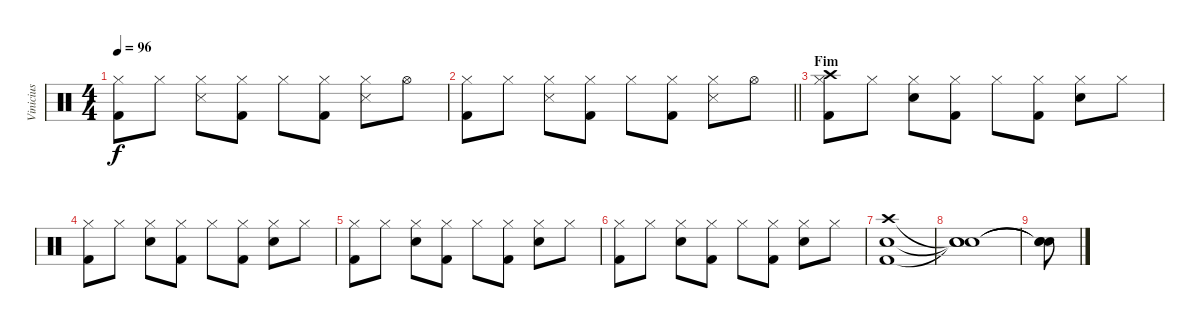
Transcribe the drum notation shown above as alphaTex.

\track ("Vinicius" "Vinicius") {instrument percussion}
\staff {score}
\articulation defaults
\ts (4 4)
\tempo 96
\clef neutral
\ks c
("Kick (hit) 2" "Hi-Hat (closed)").8{dy f} "Hi-Hat (closed)".8 ("Snare (side stick) 3" "Hi-Hat (closed)").8 ("Kick (hit) 2" "Hi-Hat (closed)").8 "Hi-Hat (closed)".8 ("Kick (hit) 2" "Hi-Hat (closed)").8 ("Snare (side stick) 3" "Hi-Hat (closed)").8 "Hi-Hat (open)".8 |
\barLineRight lightlight
("Kick (hit) 2" "Hi-Hat (closed)").8 "Hi-Hat (closed)".8 ("Snare (side stick) 3" "Hi-Hat (closed)").8 ("Kick (hit) 2" "Hi-Hat (closed)").8 "Hi-Hat (closed)".8 ("Kick (hit) 2" "Hi-Hat (closed)").8 ("Snare (side stick) 3" "Hi-Hat (closed)").8 "Hi-Hat (open)".8 |
\section ("" "Fim")
("Kick (hit) 2" "Crash high (hit)" "Hi-Hat (closed)").8 "Hi-Hat (closed)".8 ("Snare (hit) 2" "Hi-Hat (closed)").8 ("Kick (hit) 2" "Hi-Hat (closed)").8 "Hi-Hat (closed)".8 ("Kick (hit) 2" "Hi-Hat (closed)").8 ("Snare (hit) 2" "Hi-Hat (closed)").8 "Hi-Hat (closed)".8 |
("Kick (hit) 2" "Hi-Hat (closed)").8 "Hi-Hat (closed)".8 ("Snare (hit) 2" "Hi-Hat (closed)").8 ("Kick (hit) 2" "Hi-Hat (closed)").8 "Hi-Hat (closed)".8 ("Kick (hit) 2" "Hi-Hat (closed)").8 ("Snare (hit) 2" "Hi-Hat (closed)").8 "Hi-Hat (closed)".8 |
("Kick (hit) 2" "Hi-Hat (closed)").8 "Hi-Hat (closed)".8 ("Snare (hit) 2" "Hi-Hat (closed)").8 ("Kick (hit) 2" "Hi-Hat (closed)").8 "Hi-Hat (closed)".8 ("Kick (hit) 2" "Hi-Hat (closed)").8 ("Snare (hit) 2" "Hi-Hat (closed)").8 "Hi-Hat (closed)".8 |
("Kick (hit) 2" "Hi-Hat (closed)").8 "Hi-Hat (closed)".8 ("Snare (hit) 2" "Hi-Hat (closed)").8 ("Kick (hit) 2" "Hi-Hat (closed)").8 "Hi-Hat (closed)".8 ("Kick (hit) 2" "Hi-Hat (closed)").8 ("Snare (hit) 2" "Hi-Hat (closed)").8 "Hi-Hat (closed)".8 |
("Crash high (hit)" "Kick (hit) 2" "Snare (hit) 2").1 |
("Snare (hit)"{t} "Snare (hit)"{t} "Snare (hit)"{t}).1 |
("Snare (hit)"{t} "Snare (hit)"{t} "Snare (hit)"{t}).8
